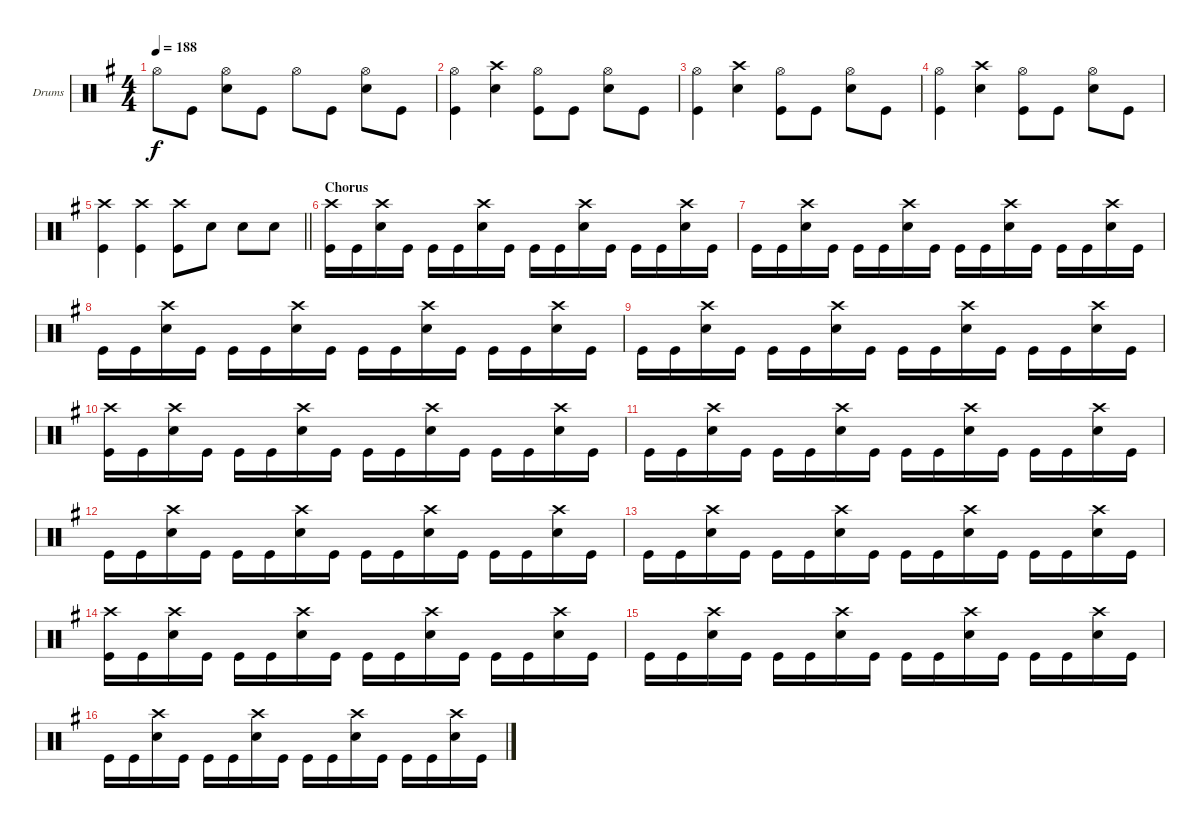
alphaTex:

\defaultSystemsLayout 4
\bracketExtendMode groupsimilarinstruments
\firstSystemTrackNameOrientation horizontal
\otherSystemsTrackNameOrientation horizontal
\track ("Drums" "Drums") {instrument percussion}
\staff {score}
\articulation defaults
\ts (4 4)
\tempo 188
\clef neutral
\ks g "Hi-Hat (open)".8{dy f} "Kick (hit)".8
("Snare (hit) 2" "Hi-Hat (open)").8 "Kick (hit)".8 "Hi-Hat (open)".8 "Kick (hit)".8 ("Snare (hit) 2" "Hi-Hat (open)").8 "Kick (hit)".8 |
("Kick (hit)" "Hi-Hat (open)").4 ("Snare (hit) 2" "Crash high (hit)").4 ("Kick (hit)" "Hi-Hat (open)").8 "Kick (hit)".8 ("Snare (hit) 2" "Hi-Hat (open)").8 "Kick (hit)".8 |
("Kick (hit)" "Hi-Hat (open)").4 ("Snare (hit) 2" "Crash high (hit)").4 ("Kick (hit)" "Hi-Hat (open)").8 "Kick (hit)".8 ("Snare (hit) 2" "Hi-Hat (open)").8 "Kick (hit)".8 |
("Kick (hit)" "Hi-Hat (open)").4 ("Snare (hit) 2" "Crash high (hit)").4 ("Kick (hit)" "Hi-Hat (open)").8 "Kick (hit)".8 ("Snare (hit) 2" "Hi-Hat (open)").8 "Kick (hit)".8 |
\barLineRight lightlight
("Kick (hit)" "Crash high (hit)").4 ("Kick (hit)" "Crash high (hit)").4 ("Kick (hit)" "Crash high (hit)").8 "Snare (hit) 2".8 "Snare (hit) 2".8 "Snare (hit) 2".8 |
\section ("" "Chorus")
("Kick (hit)" "Crash high (hit)").16 "Kick (hit)".16 ("Snare (hit) 2" "Crash high (hit)").16 "Kick (hit)".16 "Kick (hit)".16 "Kick (hit)".16 ("Snare (hit) 2" "Crash high (hit)").16 "Kick (hit)".16 "Kick (hit)".16 "Kick (hit)".16 ("Snare (hit) 2" "Crash high (hit)").16 "Kick (hit)".16 "Kick (hit)".16 "Kick (hit)".16 ("Snare (hit) 2" "Crash high (hit)").16 "Kick (hit)".16 |
"Kick (hit)".16 "Kick (hit)".16 ("Snare (hit) 2" "Crash high (hit)").16 "Kick (hit)".16 "Kick (hit)".16 "Kick (hit)".16 ("Snare (hit) 2" "Crash high (hit)").16 "Kick (hit)".16 "Kick (hit)".16 "Kick (hit)".16 ("Snare (hit) 2" "Crash high (hit)").16 "Kick (hit)".16 "Kick (hit)".16 "Kick (hit)".16 ("Snare (hit) 2" "Crash high (hit)").16 "Kick (hit)".16 |
"Kick (hit)".16 "Kick (hit)".16 ("Snare (hit) 2" "Crash high (hit)").16 "Kick (hit)".16 "Kick (hit)".16 "Kick (hit)".16 ("Snare (hit) 2" "Crash high (hit)").16 "Kick (hit)".16 "Kick (hit)".16 "Kick (hit)".16 ("Snare (hit) 2" "Crash high (hit)").16 "Kick (hit)".16 "Kick (hit)".16 "Kick (hit)".16 ("Snare (hit) 2" "Crash high (hit)").16 "Kick (hit)".16 |
"Kick (hit)".16 "Kick (hit)".16 ("Snare (hit) 2" "Crash high (hit)").16 "Kick (hit)".16 "Kick (hit)".16 "Kick (hit)".16 ("Snare (hit) 2" "Crash high (hit)").16 "Kick (hit)".16 "Kick (hit)".16 "Kick (hit)".16 ("Snare (hit) 2" "Crash high (hit)").16 "Kick (hit)".16 "Kick (hit)".16 "Kick (hit)".16 ("Snare (hit) 2" "Crash high (hit)").16 "Kick (hit)".16 |
("Kick (hit)" "Crash high (hit)").16 "Kick (hit)".16 ("Snare (hit) 2" "Crash high (hit)").16 "Kick (hit)".16 "Kick (hit)".16 "Kick (hit)".16 ("Snare (hit) 2" "Crash high (hit)").16 "Kick (hit)".16 "Kick (hit)".16 "Kick (hit)".16 ("Snare (hit) 2" "Crash high (hit)").16 "Kick (hit)".16 "Kick (hit)".16 "Kick (hit)".16 ("Snare (hit) 2" "Crash high (hit)").16 "Kick (hit)".16 |
"Kick (hit)".16 "Kick (hit)".16 ("Snare (hit) 2" "Crash high (hit)").16 "Kick (hit)".16 "Kick (hit)".16 "Kick (hit)".16 ("Snare (hit) 2" "Crash high (hit)").16 "Kick (hit)".16 "Kick (hit)".16 "Kick (hit)".16 ("Snare (hit) 2" "Crash high (hit)").16 "Kick (hit)".16 "Kick (hit)".16 "Kick (hit)".16 ("Snare (hit) 2" "Crash high (hit)").16 "Kick (hit)".16 |
"Kick (hit)".16 "Kick (hit)".16 ("Snare (hit) 2" "Crash high (hit)").16 "Kick (hit)".16 "Kick (hit)".16 "Kick (hit)".16 ("Snare (hit) 2" "Crash high (hit)").16 "Kick (hit)".16 "Kick (hit)".16 "Kick (hit)".16 ("Snare (hit) 2" "Crash high (hit)").16 "Kick (hit)".16 "Kick (hit)".16 "Kick (hit)".16 ("Snare (hit) 2" "Crash high (hit)").16 "Kick (hit)".16 |
"Kick (hit)".16 "Kick (hit)".16 ("Snare (hit) 2" "Crash high (hit)").16 "Kick (hit)".16 "Kick (hit)".16 "Kick (hit)".16 ("Snare (hit) 2" "Crash high (hit)").16 "Kick (hit)".16 "Kick (hit)".16 "Kick (hit)".16 ("Snare (hit) 2" "Crash high (hit)").16 "Kick (hit)".16 "Kick (hit)".16 "Kick (hit)".16 ("Snare (hit) 2" "Crash high (hit)").16 "Kick (hit)".16 |
("Kick (hit)" "Crash high (hit)").16 "Kick (hit)".16 ("Snare (hit) 2" "Crash high (hit)").16 "Kick (hit)".16 "Kick (hit)".16 "Kick (hit)".16 ("Snare (hit) 2" "Crash high (hit)").16 "Kick (hit)".16 "Kick (hit)".16 "Kick (hit)".16 ("Snare (hit) 2" "Crash high (hit)").16 "Kick (hit)".16 "Kick (hit)".16 "Kick (hit)".16 ("Snare (hit) 2" "Crash high (hit)").16 "Kick (hit)".16 |
"Kick (hit)".16 "Kick (hit)".16 ("Snare (hit) 2" "Crash high (hit)").16 "Kick (hit)".16 "Kick (hit)".16 "Kick (hit)".16 ("Snare (hit) 2" "Crash high (hit)").16 "Kick (hit)".16 "Kick (hit)".16 "Kick (hit)".16 ("Snare (hit) 2" "Crash high (hit)").16 "Kick (hit)".16 "Kick (hit)".16 "Kick (hit)".16 ("Snare (hit) 2" "Crash high (hit)").16 "Kick (hit)".16 |
"Kick (hit)".16 "Kick (hit)".16 ("Snare (hit) 2" "Crash high (hit)").16 "Kick (hit)".16 "Kick (hit)".16 "Kick (hit)".16 ("Snare (hit) 2" "Crash high (hit)").16 "Kick (hit)".16 "Kick (hit)".16 "Kick (hit)".16 ("Snare (hit) 2" "Crash high (hit)").16 "Kick (hit)".16 "Kick (hit)".16 "Kick (hit)".16 ("Snare (hit) 2" "Crash high (hit)").16 "Kick (hit)".16
